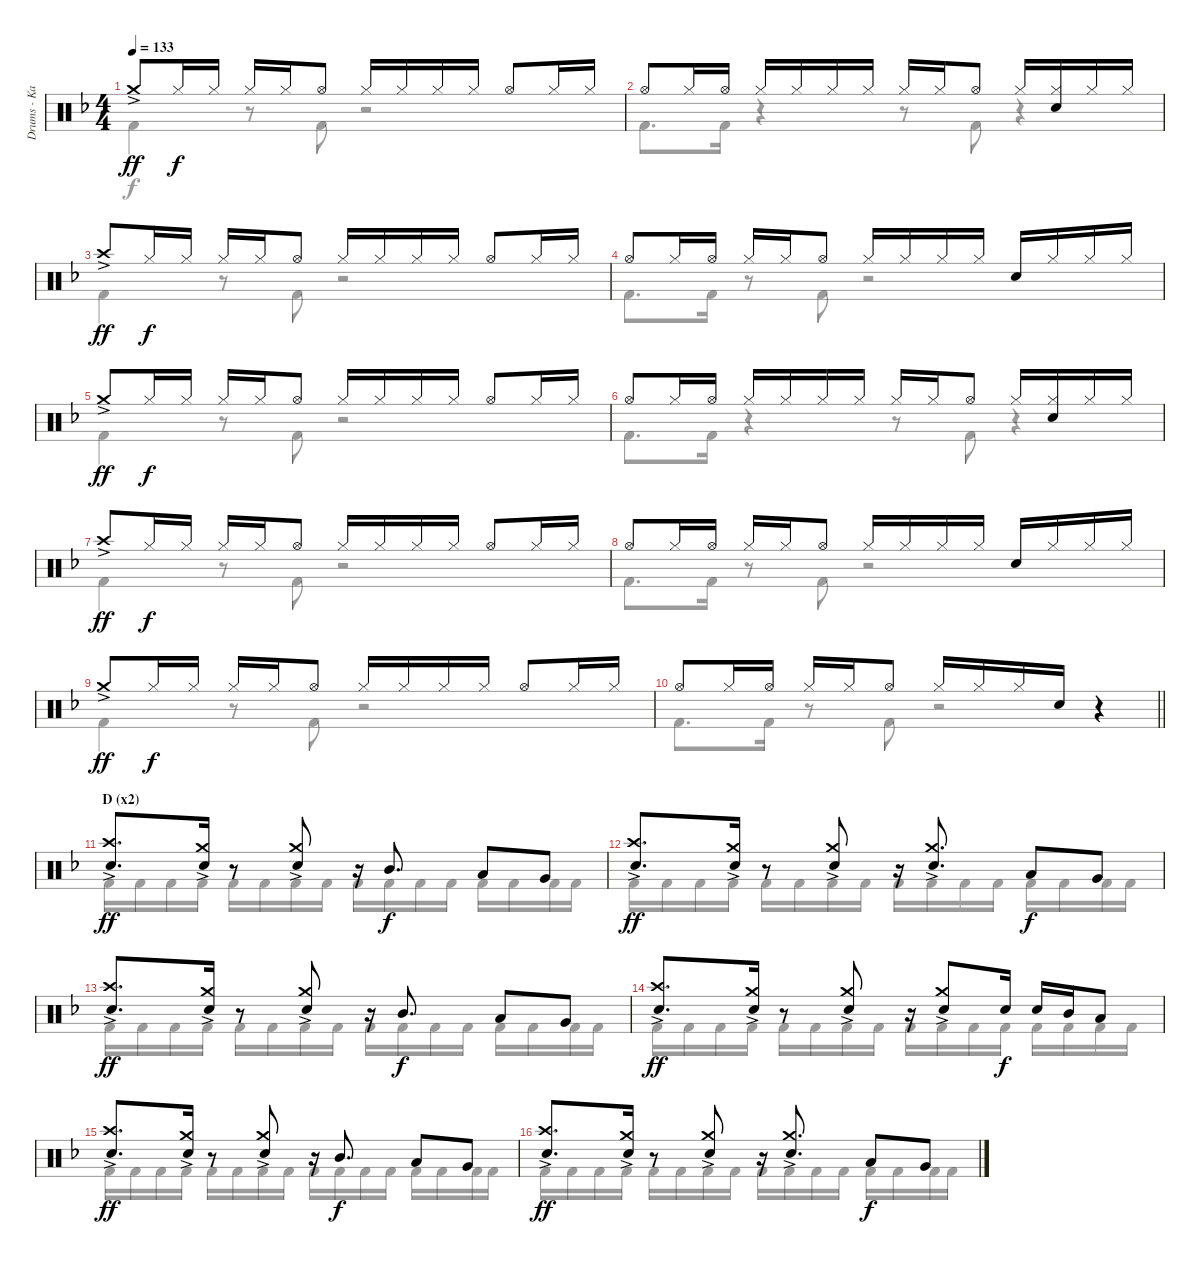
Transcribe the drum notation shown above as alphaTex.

\track ("Drums - Kai" "Drums - Ka") {instrument percussion}
\staff {score}
\articulation defaults
\voice
\ts (4 4)
\tempo 133
\clef neutral
\ks f "Crash medium (hit)"{ac}.8{dy ff} "Hi-Hat (closed)".16{dy f} "Hi-Hat (closed)".16 "Hi-Hat (closed)".16 "Hi-Hat (closed)".16 "Hi-Hat (open)".8 "Hi-Hat (closed)".16 "Hi-Hat (closed)".16 "Hi-Hat (closed)".16 "Hi-Hat (closed)".16 "Hi-Hat (open)".8 "Hi-Hat (closed)".16 "Hi-Hat (closed)".16
|
"Hi-Hat (open)".8 "Hi-Hat (closed)".16 "Hi-Hat (open)".16 "Hi-Hat (closed)".16 "Hi-Hat (closed)".16 "Hi-Hat (closed)".16 "Hi-Hat (closed)".16 "Hi-Hat (closed)".16 "Hi-Hat (closed)".16 "Hi-Hat (open)".8 "Hi-Hat (closed)".16 ("Hi-Hat (closed)" "Snare (hit) 2").16 "Hi-Hat (closed)".16 "Hi-Hat (closed)".16 |
"Crash high (hit)"{ac}.8{dy ff} "Hi-Hat (closed)".16{dy f} "Hi-Hat (closed)".16 "Hi-Hat (closed)".16 "Hi-Hat (closed)".16 "Hi-Hat (open)".8 "Hi-Hat (closed)".16 "Hi-Hat (closed)".16 "Hi-Hat (closed)".16 "Hi-Hat (closed)".16 "Hi-Hat (open)".8 "Hi-Hat (closed)".16 "Hi-Hat (closed)".16 |
"Hi-Hat (open)".8 "Hi-Hat (closed)".16 "Hi-Hat (open)".16 "Hi-Hat (closed)".16 "Hi-Hat (closed)".16 "Hi-Hat (open)".8 "Hi-Hat (closed)".16 "Hi-Hat (closed)".16 "Hi-Hat (closed)".16 "Hi-Hat (closed)".16 "Snare (hit) 2".16 "Hi-Hat (closed)".16 "Hi-Hat (closed)".16 "Hi-Hat (closed)".16 |
"Crash medium (hit)"{ac}.8{dy ff} "Hi-Hat (closed)".16{dy f} "Hi-Hat (closed)".16 "Hi-Hat (closed)".16 "Hi-Hat (closed)".16 "Hi-Hat (open)".8 "Hi-Hat (closed)".16 "Hi-Hat (closed)".16 "Hi-Hat (closed)".16 "Hi-Hat (closed)".16 "Hi-Hat (open)".8 "Hi-Hat (closed)".16 "Hi-Hat (closed)".16 |
"Hi-Hat (open)".8 "Hi-Hat (closed)".16 "Hi-Hat (open)".16 "Hi-Hat (closed)".16 "Hi-Hat (closed)".16 "Hi-Hat (closed)".16 "Hi-Hat (closed)".16 "Hi-Hat (closed)".16 "Hi-Hat (closed)".16 "Hi-Hat (open)".8 "Hi-Hat (closed)".16 ("Hi-Hat (closed)" "Snare (hit) 2").16 "Hi-Hat (closed)".16 "Hi-Hat (closed)".16 |
"Crash high (hit)"{ac}.8{dy ff} "Hi-Hat (closed)".16{dy f} "Hi-Hat (closed)".16 "Hi-Hat (closed)".16 "Hi-Hat (closed)".16 "Hi-Hat (open)".8 "Hi-Hat (closed)".16 "Hi-Hat (closed)".16 "Hi-Hat (closed)".16 "Hi-Hat (closed)".16 "Hi-Hat (open)".8 "Hi-Hat (closed)".16 "Hi-Hat (closed)".16 |
"Hi-Hat (open)".8 "Hi-Hat (closed)".16 "Hi-Hat (open)".16 "Hi-Hat (closed)".16 "Hi-Hat (closed)".16 "Hi-Hat (open)".8 "Hi-Hat (closed)".16 "Hi-Hat (closed)".16 "Hi-Hat (closed)".16 "Hi-Hat (closed)".16 "Snare (hit) 2".16 "Hi-Hat (closed)".16 "Hi-Hat (closed)".16 "Hi-Hat (closed)".16 |
"Crash medium (hit)"{ac}.8{dy ff} "Hi-Hat (closed)".16{dy f} "Hi-Hat (closed)".16 "Hi-Hat (closed)".16 "Hi-Hat (closed)".16 "Hi-Hat (open)".8 "Hi-Hat (closed)".16 "Hi-Hat (closed)".16 "Hi-Hat (closed)".16 "Hi-Hat (closed)".16 "Hi-Hat (open)".8 "Hi-Hat (closed)".16 "Hi-Hat (closed)".16 |
\barLineRight lightlight "Hi-Hat (open)".8 "Hi-Hat (closed)".16 "Hi-Hat (open)".16 "Hi-Hat (closed)".16 "Hi-Hat (closed)".16 "Hi-Hat (open)".8 "Hi-Hat (closed)".16 "Hi-Hat (closed)".16 "Hi-Hat (closed)".16 "Snare (hit) 2".16
r.4 |
\section ("" "D (x2)")
("Crash high (hit)"{ac} "Snare (hit) 2").8{d dy ff} ("Crash medium (hit)"{ac} "Snare (hit) 2").16 r.8 ("Crash medium (hit)"{ac} "Snare (hit) 2").8 r.16 "Mid Tom (hit)".8{d dy f} "Low Tom (hit)".8 "Very Low Tom (hit)".8 |
("Crash high (hit)"{ac} "Snare (hit) 2").8{d dy ff} ("Crash medium (hit)"{ac} "Snare (hit) 2").16 r.8 ("Crash medium (hit)"{ac} "Snare (hit) 2").8 r.16 ("Crash medium (hit)"{ac} "Snare (hit) 2").8{d} "Low Tom (hit)".8{dy f} "Very Low Tom (hit)".8 |
("Crash high (hit)"{ac} "Snare (hit) 2").8{d dy ff} ("Crash medium (hit)"{ac} "Snare (hit) 2").16 r.8 ("Crash medium (hit)"{ac} "Snare (hit) 2").8 r.16 "Mid Tom (hit)".8{d dy f} "Low Tom (hit)".8 "Very Low Tom (hit)".8 |
("Crash high (hit)"{ac} "Snare (hit) 2").8{d dy ff} ("Crash medium (hit)"{ac} "Snare (hit) 2").16 r.8 ("Crash medium (hit)"{ac} "Snare (hit) 2").8 r.16 ("Crash medium (hit)"{ac} "Snare (hit) 2").8 "Snare (hit) 2".16{dy f} "Snare (hit) 2".16 "Mid Tom (hit)".16 "Low Tom (hit)".8 |
("Crash high (hit)"{ac} "Snare (hit) 2").8{d dy ff} ("Crash medium (hit)"{ac} "Snare (hit) 2").16 r.8 ("Crash medium (hit)"{ac} "Snare (hit) 2").8 r.16 "Mid Tom (hit)".8{d dy f} "Low Tom (hit)".8 "Very Low Tom (hit)".8 |
("Crash high (hit)"{ac} "Snare (hit) 2").8{d dy ff} ("Crash medium (hit)"{ac} "Snare (hit) 2").16 r.8 ("Crash medium (hit)"{ac} "Snare (hit) 2").8 r.16 ("Crash medium (hit)"{ac} "Snare (hit) 2").8{d} "Low Tom (hit)".8{dy f} "Very Low Tom (hit)".8
\voice
\clef neutral
\ottava regular
\simile none
\ks f "Kick (hit) 2".4{dy f}
r.8 "Kick (hit) 2".8 r.2 |
"Kick (hit) 2".8{d} "Kick (hit) 2".16 r.4 r.8 "Kick (hit) 2".8 r.4 |
"Kick (hit) 2".4 r.8 "Kick (hit) 2".8 r.2 |
"Kick (hit) 2".8{d} "Kick (hit) 2".16 r.8 "Kick (hit) 2".8 r.2 |
"Kick (hit) 2".4 r.8 "Kick (hit) 2".8 r.2 |
"Kick (hit) 2".8{d} "Kick (hit) 2".16 r.4 r.8 "Kick (hit) 2".8 r.4 |
"Kick (hit) 2".4 r.8 "Kick (hit) 2".8 r.2 |
"Kick (hit) 2".8{d} "Kick (hit) 2".16 r.8 "Kick (hit) 2".8 r.2 |
"Kick (hit) 2".4 r.8 "Kick (hit) 2".8 r.2 |
\barLineRight lightlight "Kick (hit) 2".8{d} "Kick (hit) 2".16
r.8 "Kick (hit) 2".8 r.2 |
"Kick (hit) 2".16 "Kick (hit) 2".16 "Kick (hit) 2".16 "Kick (hit) 2".16 "Kick (hit) 2".16 "Kick (hit) 2".16 "Kick (hit) 2".16 "Kick (hit) 2".16 "Kick (hit) 2".16 "Kick (hit) 2".16 "Kick (hit) 2".16 "Kick (hit) 2".16 "Kick (hit) 2".16 "Kick (hit) 2".16 "Kick (hit) 2".16 "Kick (hit) 2".16 |
"Kick (hit) 2".16 "Kick (hit) 2".16 "Kick (hit) 2".16 "Kick (hit) 2".16 "Kick (hit) 2".16 "Kick (hit) 2".16 "Kick (hit) 2".16 "Kick (hit) 2".16 "Kick (hit) 2".16 "Kick (hit) 2".16 "Kick (hit) 2".16 "Kick (hit) 2".16 "Kick (hit) 2".16 "Kick (hit) 2".16 "Kick (hit) 2".16 "Kick (hit) 2".16 |
"Kick (hit) 2".16 "Kick (hit) 2".16 "Kick (hit) 2".16 "Kick (hit) 2".16 "Kick (hit) 2".16 "Kick (hit) 2".16 "Kick (hit) 2".16 "Kick (hit) 2".16 "Kick (hit) 2".16 "Kick (hit) 2".16 "Kick (hit) 2".16 "Kick (hit) 2".16 "Kick (hit) 2".16 "Kick (hit) 2".16 "Kick (hit) 2".16 "Kick (hit) 2".16 |
"Kick (hit) 2".16 "Kick (hit) 2".16 "Kick (hit) 2".16 "Kick (hit) 2".16 "Kick (hit) 2".16 "Kick (hit) 2".16 "Kick (hit) 2".16 "Kick (hit) 2".16 "Kick (hit) 2".16 "Kick (hit) 2".16 "Kick (hit) 2".16 "Kick (hit) 2".16 "Kick (hit) 2".16 "Kick (hit) 2".16 "Kick (hit) 2".16 "Kick (hit) 2".16 |
"Kick (hit) 2".16 "Kick (hit) 2".16 "Kick (hit) 2".16 "Kick (hit) 2".16 "Kick (hit) 2".16 "Kick (hit) 2".16 "Kick (hit) 2".16 "Kick (hit) 2".16 "Kick (hit) 2".16 "Kick (hit) 2".16 "Kick (hit) 2".16 "Kick (hit) 2".16 "Kick (hit) 2".16 "Kick (hit) 2".16 "Kick (hit) 2".16 "Kick (hit) 2".16 |
"Kick (hit) 2".16 "Kick (hit) 2".16 "Kick (hit) 2".16 "Kick (hit) 2".16 "Kick (hit) 2".16 "Kick (hit) 2".16 "Kick (hit) 2".16 "Kick (hit) 2".16 "Kick (hit) 2".16 "Kick (hit) 2".16 "Kick (hit) 2".16 "Kick (hit) 2".16 "Kick (hit) 2".16 "Kick (hit) 2".16 "Kick (hit) 2".16 "Kick (hit) 2".16
